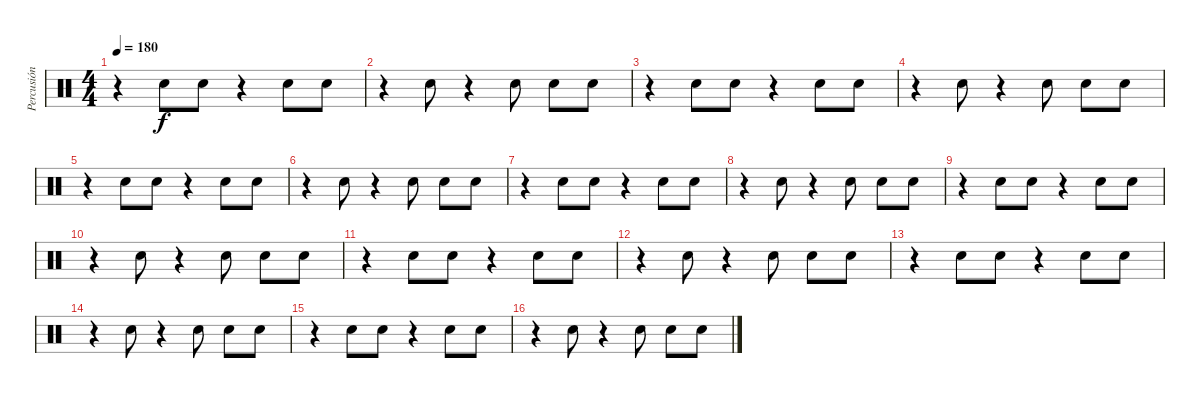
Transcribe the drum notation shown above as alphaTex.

\track ("Percusión" "Percusión") {instrument percussion}
\staff {score}
\articulation defaults
\ts (4 4)
\tempo 180
\clef neutral
\ks c
r.4{dy f} "Hand Clap (hit)".8 "Hand Clap (hit)".8 r.4 "Hand Clap (hit)".8 "Hand Clap (hit)".8 |
r.4 "Hand Clap (hit)".8 r.4 "Hand Clap (hit)".8 "Hand Clap (hit)".8 "Hand Clap (hit)".8 |
r.4 "Hand Clap (hit)".8 "Hand Clap (hit)".8 r.4 "Hand Clap (hit)".8 "Hand Clap (hit)".8 |
r.4 "Hand Clap (hit)".8 r.4 "Hand Clap (hit)".8 "Hand Clap (hit)".8 "Hand Clap (hit)".8 |
r.4 "Hand Clap (hit)".8 "Hand Clap (hit)".8 r.4 "Hand Clap (hit)".8 "Hand Clap (hit)".8 |
r.4 "Hand Clap (hit)".8 r.4 "Hand Clap (hit)".8 "Hand Clap (hit)".8 "Hand Clap (hit)".8 |
r.4 "Hand Clap (hit)".8 "Hand Clap (hit)".8 r.4 "Hand Clap (hit)".8 "Hand Clap (hit)".8 |
r.4 "Hand Clap (hit)".8 r.4 "Hand Clap (hit)".8 "Hand Clap (hit)".8 "Hand Clap (hit)".8 |
r.4 "Hand Clap (hit)".8 "Hand Clap (hit)".8 r.4 "Hand Clap (hit)".8 "Hand Clap (hit)".8 |
r.4 "Hand Clap (hit)".8 r.4 "Hand Clap (hit)".8 "Hand Clap (hit)".8 "Hand Clap (hit)".8 |
r.4 "Hand Clap (hit)".8 "Hand Clap (hit)".8 r.4 "Hand Clap (hit)".8 "Hand Clap (hit)".8 |
r.4 "Hand Clap (hit)".8 r.4 "Hand Clap (hit)".8 "Hand Clap (hit)".8 "Hand Clap (hit)".8 |
r.4 "Hand Clap (hit)".8 "Hand Clap (hit)".8 r.4 "Hand Clap (hit)".8 "Hand Clap (hit)".8 |
r.4 "Hand Clap (hit)".8 r.4 "Hand Clap (hit)".8 "Hand Clap (hit)".8 "Hand Clap (hit)".8 |
r.4 "Hand Clap (hit)".8 "Hand Clap (hit)".8 r.4 "Hand Clap (hit)".8 "Hand Clap (hit)".8 |
r.4 "Hand Clap (hit)".8 r.4 "Hand Clap (hit)".8 "Hand Clap (hit)".8 "Hand Clap (hit)".8
